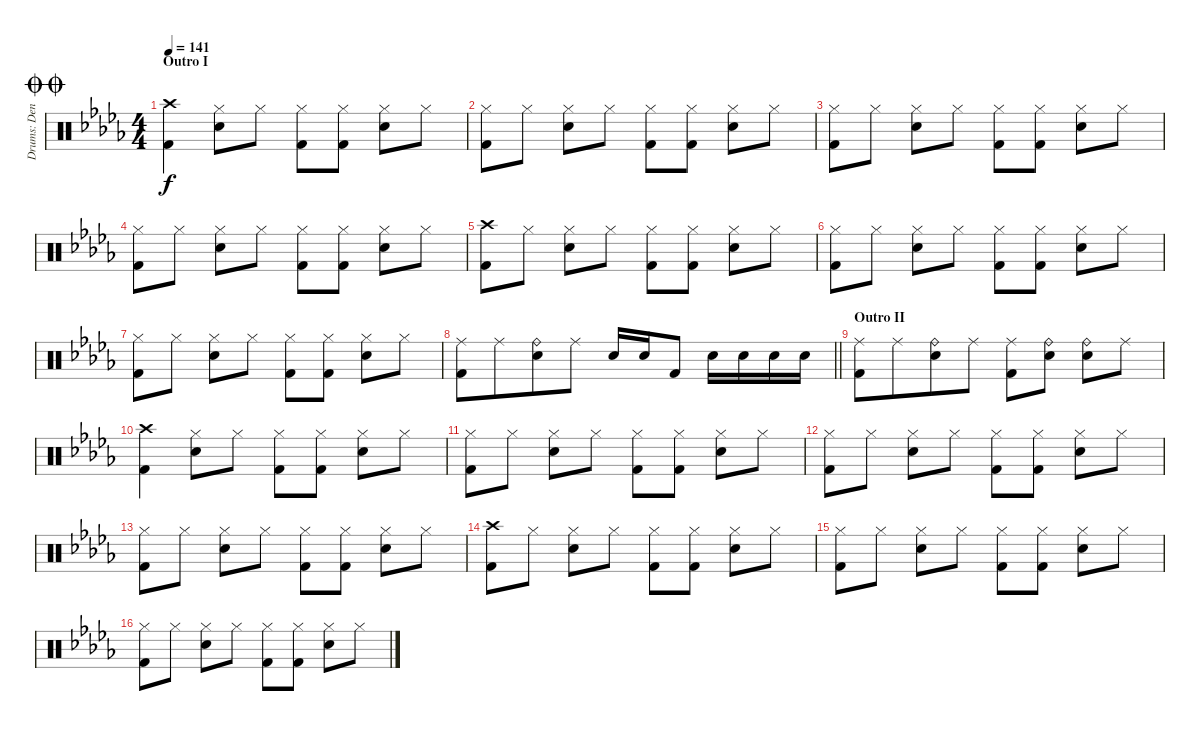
\track ("Drums: Denny" "Drums: Den") {instrument percussion}
\staff {score}
\articulation defaults
\ts (4 4)
\section ("" "Outro I")
\jump doublecoda
\tempo 141
\clef neutral
\ks db
("Crash high (hit)" "Kick (hit) 2").4{dy f} ("Hi-Hat (closed)" "Snare (hit) 2").8 "Hi-Hat (closed)".8 ("Hi-Hat (closed)" "Kick (hit) 2").8 ("Hi-Hat (closed)" "Kick (hit) 2").8 ("Hi-Hat (closed)" "Snare (hit) 2").8 "Hi-Hat (closed)".8 |
("Hi-Hat (closed)" "Kick (hit) 2").8 "Hi-Hat (closed)".8 ("Hi-Hat (closed)" "Snare (hit) 2").8 "Hi-Hat (closed)".8 ("Hi-Hat (closed)" "Kick (hit) 2").8 ("Hi-Hat (closed)" "Kick (hit) 2").8 ("Hi-Hat (closed)" "Snare (hit) 2").8 "Hi-Hat (closed)".8 |
("Hi-Hat (closed)" "Kick (hit) 2").8 "Hi-Hat (closed)".8 ("Hi-Hat (closed)" "Snare (hit) 2").8 "Hi-Hat (closed)".8 ("Hi-Hat (closed)" "Kick (hit) 2").8 ("Hi-Hat (closed)" "Kick (hit) 2").8 ("Hi-Hat (closed)" "Snare (hit) 2").8 "Hi-Hat (closed)".8 |
("Hi-Hat (closed)" "Kick (hit) 2").8 "Hi-Hat (closed)".8 ("Hi-Hat (closed)" "Snare (hit) 2").8 "Hi-Hat (closed)".8 ("Hi-Hat (closed)" "Kick (hit) 2").8 ("Hi-Hat (closed)" "Kick (hit) 2").8 ("Hi-Hat (closed)" "Snare (hit) 2").8 "Hi-Hat (closed)".8 |
("Crash high (hit)" "Kick (hit) 2").8 "Hi-Hat (closed)".8 ("Hi-Hat (closed)" "Snare (hit) 2").8 "Hi-Hat (closed)".8 ("Hi-Hat (closed)" "Kick (hit) 2").8 ("Hi-Hat (closed)" "Kick (hit) 2").8 ("Hi-Hat (closed)" "Snare (hit) 2").8 "Hi-Hat (closed)".8 |
("Hi-Hat (closed)" "Kick (hit) 2").8 "Hi-Hat (closed)".8 ("Hi-Hat (closed)" "Snare (hit) 2").8 "Hi-Hat (closed)".8 ("Hi-Hat (closed)" "Kick (hit) 2").8 ("Hi-Hat (closed)" "Kick (hit) 2").8 ("Hi-Hat (closed)" "Snare (hit) 2").8 "Hi-Hat (closed)".8 |
("Hi-Hat (closed)" "Kick (hit) 2").8 "Hi-Hat (closed)".8 ("Hi-Hat (closed)" "Snare (hit) 2").8 "Hi-Hat (closed)".8 ("Hi-Hat (closed)" "Kick (hit) 2").8 ("Hi-Hat (closed)" "Kick (hit) 2").8 ("Hi-Hat (closed)" "Snare (hit) 2").8 "Hi-Hat (closed)".8 |
\barLineRight lightlight
("Ride (middle)" "Kick (hit) 2").8 "Ride (middle)".8{beam merge} ("Ride (bell)" "Snare (hit) 2").8 "Ride (middle)".8 "Snare (hit) 2".16 "Snare (hit) 2".16 "Kick (hit) 2".8 "Snare (hit) 2".16 "Snare (hit) 2".16 "Snare (hit) 2".16 "Snare (hit) 2".16 |
\section ("" "Outro II")
("Ride (middle)" "Kick (hit) 2").8 "Ride (middle)".8{beam merge} ("Ride (bell)" "Snare (hit) 2").8 "Ride (middle)".8 ("Ride (middle)" "Kick (hit) 2").8 ("Ride (bell)" "Snare (hit) 2").8 ("Ride (bell)" "Snare (hit) 2").8 "Ride (middle)".8 |
("Crash high (hit)" "Kick (hit) 2").4 ("Hi-Hat (closed)" "Snare (hit) 2").8 "Hi-Hat (closed)".8 ("Hi-Hat (closed)" "Kick (hit) 2").8 ("Hi-Hat (closed)" "Kick (hit) 2").8 ("Hi-Hat (closed)" "Snare (hit) 2").8 "Hi-Hat (closed)".8 |
("Hi-Hat (closed)" "Kick (hit) 2").8 "Hi-Hat (closed)".8 ("Hi-Hat (closed)" "Snare (hit) 2").8 "Hi-Hat (closed)".8 ("Hi-Hat (closed)" "Kick (hit) 2").8 ("Hi-Hat (closed)" "Kick (hit) 2").8 ("Hi-Hat (closed)" "Snare (hit) 2").8 "Hi-Hat (closed)".8 |
("Hi-Hat (closed)" "Kick (hit) 2").8 "Hi-Hat (closed)".8 ("Hi-Hat (closed)" "Snare (hit) 2").8 "Hi-Hat (closed)".8 ("Hi-Hat (closed)" "Kick (hit) 2").8 ("Hi-Hat (closed)" "Kick (hit) 2").8 ("Hi-Hat (closed)" "Snare (hit) 2").8 "Hi-Hat (closed)".8 |
("Hi-Hat (closed)" "Kick (hit) 2").8 "Hi-Hat (closed)".8 ("Hi-Hat (closed)" "Snare (hit) 2").8 "Hi-Hat (closed)".8 ("Hi-Hat (closed)" "Kick (hit) 2").8 ("Hi-Hat (closed)" "Kick (hit) 2").8 ("Hi-Hat (closed)" "Snare (hit) 2").8 "Hi-Hat (closed)".8 |
("Crash high (hit)" "Kick (hit) 2").8 "Hi-Hat (closed)".8 ("Hi-Hat (closed)" "Snare (hit) 2").8 "Hi-Hat (closed)".8 ("Hi-Hat (closed)" "Kick (hit) 2").8 ("Hi-Hat (closed)" "Kick (hit) 2").8 ("Hi-Hat (closed)" "Snare (hit) 2").8 "Hi-Hat (closed)".8 |
("Hi-Hat (closed)" "Kick (hit) 2").8 "Hi-Hat (closed)".8 ("Hi-Hat (closed)" "Snare (hit) 2").8 "Hi-Hat (closed)".8 ("Hi-Hat (closed)" "Kick (hit) 2").8 ("Hi-Hat (closed)" "Kick (hit) 2").8 ("Hi-Hat (closed)" "Snare (hit) 2").8 "Hi-Hat (closed)".8 |
("Hi-Hat (closed)" "Kick (hit) 2").8 "Hi-Hat (closed)".8 ("Hi-Hat (closed)" "Snare (hit) 2").8 "Hi-Hat (closed)".8 ("Hi-Hat (closed)" "Kick (hit) 2").8 ("Hi-Hat (closed)" "Kick (hit) 2").8 ("Hi-Hat (closed)" "Snare (hit) 2").8 "Hi-Hat (closed)".8
